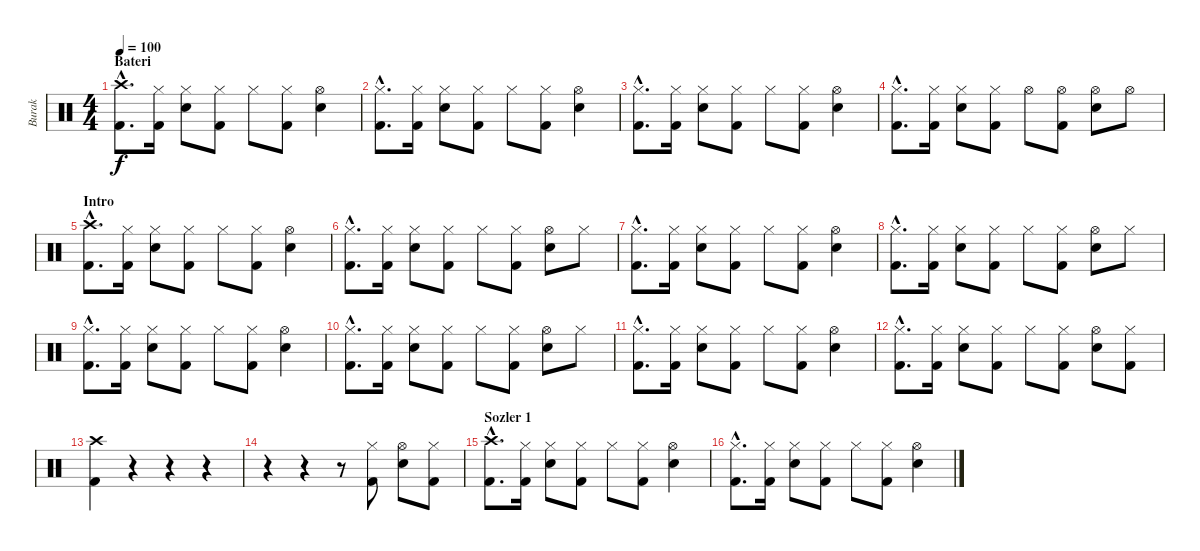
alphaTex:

\track ("Burak" "Burak") {instrument percussion}
\staff {score}
\articulation defaults
\ts (4 4)
\section ("" "Bateri")
\tempo 100
\clef neutral
\ks c
("Crash high (hit)"{hac} "Kick (hit) 2"{hac}).8{d dy f} ("Kick (hit) 2" "Hi-Hat (closed)").16 ("Electric Snare (hit)" "Hi-Hat (closed)").8 ("Kick (hit) 2" "Hi-Hat (closed)").8 "Hi-Hat (closed)".8 ("Kick (hit) 2" "Hi-Hat (closed)").8 ("Electric Snare (hit)" "Hi-Hat (open)").4 |
("Kick (hit) 2"{hac} "Hi-Hat (closed)"{hac}).8{d} ("Kick (hit) 2" "Hi-Hat (closed)").16 ("Electric Snare (hit)" "Hi-Hat (closed)").8 ("Kick (hit) 2" "Hi-Hat (closed)").8 "Hi-Hat (closed)".8 ("Kick (hit) 2" "Hi-Hat (closed)").8 ("Electric Snare (hit)" "Hi-Hat (open)").4 |
("Kick (hit) 2"{hac} "Hi-Hat (closed)"{hac}).8{d} ("Kick (hit) 2" "Hi-Hat (closed)").16 ("Electric Snare (hit)" "Hi-Hat (closed)").8 ("Kick (hit) 2" "Hi-Hat (closed)").8 "Hi-Hat (closed)".8 ("Kick (hit) 2" "Hi-Hat (closed)").8 ("Electric Snare (hit)" "Hi-Hat (open)").4 |
("Kick (hit) 2"{hac} "Hi-Hat (closed)"{hac}).8{d} ("Kick (hit) 2" "Hi-Hat (closed)").16 ("Electric Snare (hit)" "Hi-Hat (closed)").8 ("Kick (hit) 2" "Hi-Hat (closed)").8 "Hi-Hat (open)".8 ("Kick (hit) 2" "Hi-Hat (open)").8 ("Electric Snare (hit)" "Hi-Hat (open)").8 "Hi-Hat (open)".8 |
\section ("" "Intro")
("Crash high (hit)"{hac} "Kick (hit) 2"{hac}).8{d} ("Kick (hit) 2" "Hi-Hat (closed)").16 ("Electric Snare (hit)" "Hi-Hat (closed)").8 ("Kick (hit) 2" "Hi-Hat (closed)").8 "Hi-Hat (closed)".8 ("Kick (hit) 2" "Hi-Hat (closed)").8 ("Electric Snare (hit)" "Hi-Hat (open)").4 |
("Kick (hit) 2"{hac} "Hi-Hat (closed)"{hac}).8{d} ("Kick (hit) 2" "Hi-Hat (closed)").16 ("Electric Snare (hit)" "Hi-Hat (closed)").8 ("Kick (hit) 2" "Hi-Hat (closed)").8 "Hi-Hat (closed)".8 ("Kick (hit) 2" "Hi-Hat (closed)").8 ("Electric Snare (hit)" "Hi-Hat (open)").8 "Hi-Hat (closed)".8 |
("Kick (hit) 2"{hac} "Hi-Hat (closed)"{hac}).8{d} ("Kick (hit) 2" "Hi-Hat (closed)").16 ("Electric Snare (hit)" "Hi-Hat (closed)").8 ("Kick (hit) 2" "Hi-Hat (closed)").8 "Hi-Hat (closed)".8 ("Kick (hit) 2" "Hi-Hat (closed)").8 ("Electric Snare (hit)" "Hi-Hat (open)").4 |
("Kick (hit) 2"{hac} "Hi-Hat (closed)"{hac}).8{d} ("Kick (hit) 2" "Hi-Hat (closed)").16 ("Electric Snare (hit)" "Hi-Hat (closed)").8 ("Kick (hit) 2" "Hi-Hat (closed)").8 "Hi-Hat (closed)".8 ("Kick (hit) 2" "Hi-Hat (closed)").8 ("Electric Snare (hit)" "Hi-Hat (open)").8 "Hi-Hat (closed)".8 |
("Kick (hit) 2"{hac} "Hi-Hat (closed)"{hac}).8{d} ("Kick (hit) 2" "Hi-Hat (closed)").16 ("Electric Snare (hit)" "Hi-Hat (closed)").8 ("Kick (hit) 2" "Hi-Hat (closed)").8 "Hi-Hat (closed)".8 ("Kick (hit) 2" "Hi-Hat (closed)").8 ("Electric Snare (hit)" "Hi-Hat (open)").4 |
("Kick (hit) 2"{hac} "Hi-Hat (closed)"{hac}).8{d} ("Kick (hit) 2" "Hi-Hat (closed)").16 ("Electric Snare (hit)" "Hi-Hat (closed)").8 ("Kick (hit) 2" "Hi-Hat (closed)").8 "Hi-Hat (closed)".8 ("Kick (hit) 2" "Hi-Hat (closed)").8 ("Electric Snare (hit)" "Hi-Hat (open)").8 "Hi-Hat (closed)".8 |
("Kick (hit) 2"{hac} "Hi-Hat (closed)"{hac}).8{d} ("Kick (hit) 2" "Hi-Hat (closed)").16 ("Electric Snare (hit)" "Hi-Hat (closed)").8 ("Kick (hit) 2" "Hi-Hat (closed)").8 "Hi-Hat (closed)".8 ("Kick (hit) 2" "Hi-Hat (closed)").8 ("Electric Snare (hit)" "Hi-Hat (open)").4 |
("Kick (hit) 2"{hac} "Hi-Hat (closed)"{hac}).8{d} ("Kick (hit) 2" "Hi-Hat (closed)").16 ("Electric Snare (hit)" "Hi-Hat (closed)").8 ("Kick (hit) 2" "Hi-Hat (closed)").8 "Hi-Hat (closed)".8 ("Kick (hit) 2" "Hi-Hat (closed)").8 ("Electric Snare (hit)" "Hi-Hat (open)").8 ("Kick (hit) 2" "Hi-Hat (closed)").8 |
("Crash high (hit)" "Kick (hit) 2").4 r.4 r.4 r.4 |
r.4 r.4 r.8 ("Kick (hit) 2" "Hi-Hat (closed)").8 ("Electric Snare (hit)" "Hi-Hat (open)").8 ("Kick (hit) 2" "Hi-Hat (closed)").8 |
\section ("" "Sozler 1")
("Crash high (hit)"{hac} "Kick (hit) 2"{hac}).8{d} ("Kick (hit) 2" "Hi-Hat (closed)").16 ("Electric Snare (hit)" "Hi-Hat (closed)").8 ("Kick (hit) 2" "Hi-Hat (closed)").8 "Hi-Hat (closed)".8 ("Kick (hit) 2" "Hi-Hat (closed)").8 ("Electric Snare (hit)" "Hi-Hat (open)").4 |
("Kick (hit) 2"{hac} "Hi-Hat (closed)"{hac}).8{d} ("Kick (hit) 2" "Hi-Hat (closed)").16 ("Electric Snare (hit)" "Hi-Hat (closed)").8 ("Kick (hit) 2" "Hi-Hat (closed)").8 "Hi-Hat (closed)".8 ("Kick (hit) 2" "Hi-Hat (closed)").8 ("Electric Snare (hit)" "Hi-Hat (open)").4
